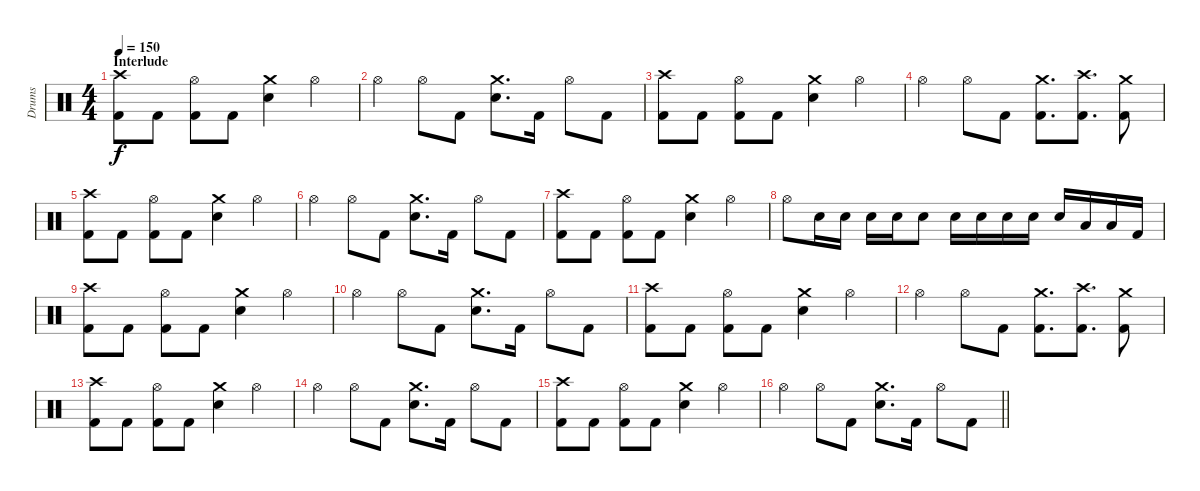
\track ("Drums" "Drums") {instrument percussion}
\staff {score}
\articulation defaults
\ts (4 4)
\section ("" "Interlude")
\tempo 150
\clef neutral
\ks c
("Crash high (hit)" "Kick (hit) 2").8{dy f} "Kick (hit) 2".8 ("Hi-Hat (open)" "Kick (hit) 2").8 "Kick (hit) 2".8 ("Crash medium (hit)" "Electric Snare (hit)").4 "Hi-Hat (open)".4 |
"Hi-Hat (open)".4 "Hi-Hat (open)".8 "Kick (hit) 2".8 ("Crash medium (hit)" "Electric Snare (hit)").8{d} "Kick (hit) 2".16 "Hi-Hat (open)".8 "Kick (hit) 2".8 |
("Crash high (hit)" "Kick (hit) 2").8 "Kick (hit) 2".8 ("Hi-Hat (open)" "Kick (hit) 2").8 "Kick (hit) 2".8 ("Crash medium (hit)" "Electric Snare (hit)").4 "Hi-Hat (open)".4 |
"Hi-Hat (open)".4 "Hi-Hat (open)".8 "Kick (hit) 2".8 ("Crash medium (hit)" "Kick (hit) 2").8{d} ("Crash high (hit)" "Kick (hit) 2").8{d} ("Crash medium (hit)" "Kick (hit) 2").8 |
("Crash high (hit)" "Kick (hit) 2").8 "Kick (hit) 2".8 ("Hi-Hat (open)" "Kick (hit) 2").8 "Kick (hit) 2".8 ("Crash medium (hit)" "Electric Snare (hit)").4 "Hi-Hat (open)".4 |
"Hi-Hat (open)".4 "Hi-Hat (open)".8 "Kick (hit) 2".8 ("Crash medium (hit)" "Electric Snare (hit)").8{d} "Kick (hit) 2".16 "Hi-Hat (open)".8 "Kick (hit) 2".8 |
("Crash high (hit)" "Kick (hit) 2").8 "Kick (hit) 2".8 ("Hi-Hat (open)" "Kick (hit) 2").8 "Kick (hit) 2".8 ("Crash medium (hit)" "Electric Snare (hit)").4 "Hi-Hat (open)".4 |
"Hi-Hat (open)".8 "Electric Snare (hit)".16 "Electric Snare (hit)".16 "Electric Snare (hit)".16 "Electric Snare (hit)".16 "Electric Snare (hit)".8 "Electric Snare (hit)".16 "Electric Snare (hit)".16 "Electric Snare (hit)".16 "Electric Snare (hit)".16 "Electric Snare (hit)".16 "Low Tom (hit)".16 "Low Floor Tom (hit)".16 "Kick (hit) 2".16 |
("Crash high (hit)" "Kick (hit) 2").8 "Kick (hit) 2".8 ("Hi-Hat (open)" "Kick (hit) 2").8 "Kick (hit) 2".8 ("Crash medium (hit)" "Electric Snare (hit)").4 "Hi-Hat (open)".4 |
"Hi-Hat (open)".4 "Hi-Hat (open)".8 "Kick (hit) 2".8 ("Crash medium (hit)" "Electric Snare (hit)").8{d} "Kick (hit) 2".16 "Hi-Hat (open)".8 "Kick (hit) 2".8 |
("Crash high (hit)" "Kick (hit) 2").8 "Kick (hit) 2".8 ("Hi-Hat (open)" "Kick (hit) 2").8 "Kick (hit) 2".8 ("Crash medium (hit)" "Electric Snare (hit)").4 "Hi-Hat (open)".4 |
"Hi-Hat (open)".4 "Hi-Hat (open)".8 "Kick (hit) 2".8 ("Crash medium (hit)" "Kick (hit) 2").8{d} ("Crash high (hit)" "Kick (hit) 2").8{d} ("Crash medium (hit)" "Kick (hit) 2").8 |
("Crash high (hit)" "Kick (hit) 2").8 "Kick (hit) 2".8 ("Hi-Hat (open)" "Kick (hit) 2").8 "Kick (hit) 2".8 ("Crash medium (hit)" "Electric Snare (hit)").4 "Hi-Hat (open)".4 |
"Hi-Hat (open)".4 "Hi-Hat (open)".8 "Kick (hit) 2".8 ("Crash medium (hit)" "Electric Snare (hit)").8{d} "Kick (hit) 2".16 "Hi-Hat (open)".8 "Kick (hit) 2".8 |
("Crash high (hit)" "Kick (hit) 2").8 "Kick (hit) 2".8 ("Hi-Hat (open)" "Kick (hit) 2").8 "Kick (hit) 2".8 ("Crash medium (hit)" "Electric Snare (hit)").4 "Hi-Hat (open)".4 |
\barLineRight lightlight "Hi-Hat (open)".4 "Hi-Hat (open)".8 "Kick (hit) 2".8
("Crash medium (hit)" "Electric Snare (hit)").8{d} "Kick (hit) 2".16 "Hi-Hat (open)".8 "Kick (hit) 2".8
